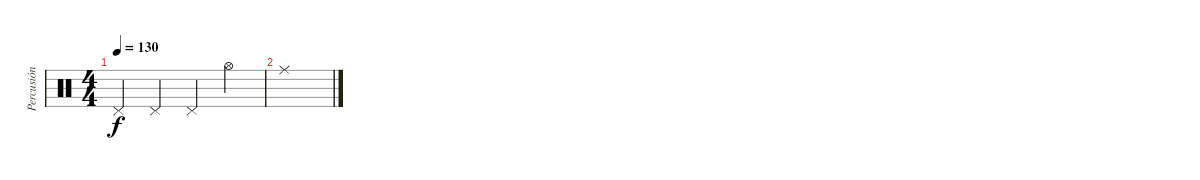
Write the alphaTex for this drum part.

\track ("Percusión" "Percusión") {instrument percussion}
\staff {score}
\articulation defaults
\ts (4 4)
\tempo 130
\clef neutral
\ks c "Pedal Hi-Hat (hit)".4{dy f} "Pedal Hi-Hat (hit)".4 "Pedal Hi-Hat (hit)".4 "Hi-Hat (open)".4
|
"Ride (middle)".1
